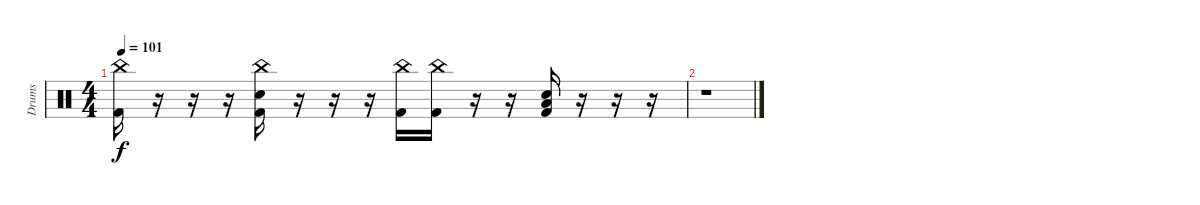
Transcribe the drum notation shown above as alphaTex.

\track ("Drums" "Drums") {instrument percussion}
\staff {score}
\articulation defaults
\ts (4 4)
\tempo 101
\clef neutral
\ks c
("China (hit)" "Kick (hit) 2").16{dy f} r.16 r.16 r.16 ("China (hit)" "Electric Snare (hit)" "Kick (hit) 2").16 r.16 r.16 r.16 ("China (hit)" "Kick (hit) 2").16 ("China (hit)" "Kick (hit) 2").16 r.16 r.16 ("Electric Snare (hit)" "Low Floor Tom (hit)" "Kick (hit) 2").16 r.16 r.16 r.16 |
r.1
